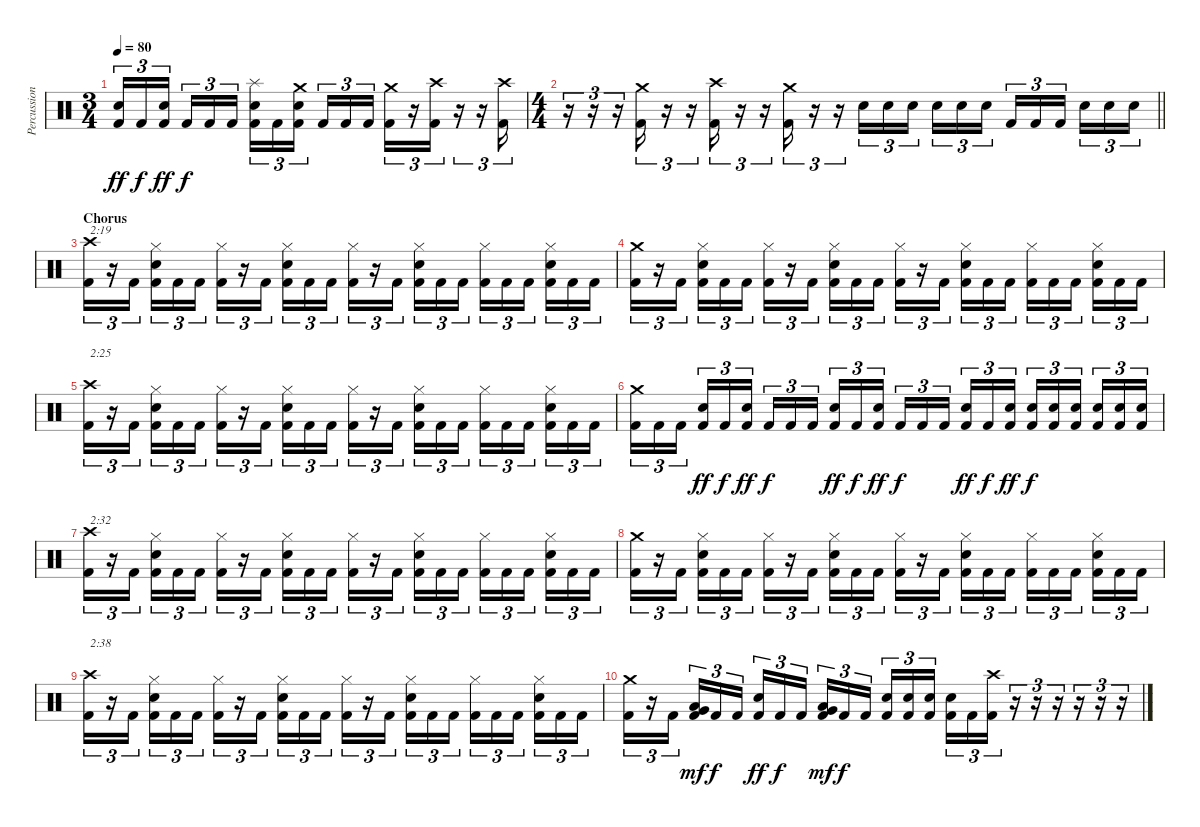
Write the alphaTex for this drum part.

\track ("Percussion" "Percussion") {instrument percussion}
\staff {score}
\articulation defaults
\ts (3 4)
\tempo 80
\clef neutral
\ks c
("Snare (hit) 2" "Kick (hit) 2").16{tu (3 2) dy ff} "Kick (hit) 2".16{tu (3 2) dy f} ("Snare (hit) 2" "Kick (hit) 2").16{tu (3 2) dy ff beam splitsecondary} "Kick (hit) 2".16{tu (3 2) dy f} "Kick (hit) 2".16{tu (3 2)} "Kick (hit) 2".16{tu (3 2)} ("Splash (hit)" "Snare (hit) 2" "Kick (hit) 2").16{tu (3 2)} "Kick (hit) 2".16{tu (3 2)} ("Crash medium (hit)" "Snare (hit) 2" "Kick (hit) 2").16{tu (3 2) beam splitsecondary} "Kick (hit) 2".16{tu (3 2)} "Kick (hit) 2".16{tu (3 2)} "Kick (hit) 2".16{tu (3 2)} ("Crash medium (hit)" "Kick (hit) 2").16{tu (3 2)} r.16{tu (3 2)} ("Crash high (hit)" "Kick (hit) 2").16{tu (3 2)} r.16{tu (3 2)} r.16{tu (3 2)} ("Crash high (hit)" "Kick (hit) 2").16{tu (3 2)} |
\ts (4 4)
\barLineRight lightlight
r.16{tu (3 2)} r.16{tu (3 2)} r.16{tu (3 2)} ("Crash medium (hit)" "Kick (hit) 2").16{tu (3 2)} r.16{tu (3 2)} r.16{tu (3 2)} ("Crash high (hit)" "Kick (hit) 2").16{tu (3 2)} r.16{tu (3 2)} r.16{tu (3 2)} ("Crash medium (hit)" "Kick (hit) 2").16{tu (3 2)} r.16{tu (3 2)} r.16{tu (3 2)} "Snare (hit) 2".16{tu (3 2)} "Snare (hit) 2".16{tu (3 2)} "Snare (hit) 2".16{tu (3 2) beam splitsecondary} "Snare (hit) 2".16{tu (3 2)} "Snare (hit) 2".16{tu (3 2)} "Snare (hit) 2".16{tu (3 2)} "Kick (hit) 2".16{tu (3 2)} "Kick (hit) 2".16{tu (3 2)} "Kick (hit) 2".16{tu (3 2) beam splitsecondary} "Snare (hit) 2".16{tu (3 2)} "Snare (hit) 2".16{tu (3 2)} "Snare (hit) 2".16{tu (3 2)} |
\section ("" "Chorus")
("Crash high (hit)" "Kick (hit) 2").16{tu (3 2) txt "2:19"} r.16{tu (3 2)} "Kick (hit) 2".16{tu (3 2) beam splitsecondary} ("Hi-Hat (closed)" "Snare (hit) 2" "Kick (hit) 2").16{tu (3 2)} "Kick (hit) 2".16{tu (3 2)} "Kick (hit) 2".16{tu (3 2)} ("Hi-Hat (closed)" "Kick (hit) 2").16{tu (3 2)} r.16{tu (3 2)} "Kick (hit) 2".16{tu (3 2) beam splitsecondary} ("Hi-Hat (closed)" "Snare (hit) 2" "Kick (hit) 2").16{tu (3 2)} "Kick (hit) 2".16{tu (3 2)} "Kick (hit) 2".16{tu (3 2)} ("Hi-Hat (closed)" "Kick (hit) 2").16{tu (3 2)} r.16{tu (3 2)} "Kick (hit) 2".16{tu (3 2) beam splitsecondary} ("Hi-Hat (closed)" "Snare (hit) 2" "Kick (hit) 2").16{tu (3 2)} "Kick (hit) 2".16{tu (3 2)} "Kick (hit) 2".16{tu (3 2)} ("Hi-Hat (closed)" "Kick (hit) 2").16{tu (3 2)} "Kick (hit) 2".16{tu (3 2)} "Kick (hit) 2".16{tu (3 2) beam splitsecondary} ("Hi-Hat (closed)" "Snare (hit) 2" "Kick (hit) 2").16{tu (3 2)} "Kick (hit) 2".16{tu (3 2)} "Kick (hit) 2".16{tu (3 2)} |
("Crash medium (hit)" "Kick (hit) 2").16{tu (3 2)} r.16{tu (3 2)} "Kick (hit) 2".16{tu (3 2) beam splitsecondary} ("Hi-Hat (closed)" "Snare (hit) 2" "Kick (hit) 2").16{tu (3 2)} "Kick (hit) 2".16{tu (3 2)} "Kick (hit) 2".16{tu (3 2)} ("Hi-Hat (closed)" "Kick (hit) 2").16{tu (3 2)} r.16{tu (3 2)} "Kick (hit) 2".16{tu (3 2) beam splitsecondary} ("Hi-Hat (closed)" "Snare (hit) 2" "Kick (hit) 2").16{tu (3 2)} "Kick (hit) 2".16{tu (3 2)} "Kick (hit) 2".16{tu (3 2)} ("Hi-Hat (closed)" "Kick (hit) 2").16{tu (3 2)} r.16{tu (3 2)} "Kick (hit) 2".16{tu (3 2) beam splitsecondary} ("Hi-Hat (closed)" "Snare (hit) 2" "Kick (hit) 2").16{tu (3 2)} "Kick (hit) 2".16{tu (3 2)} "Kick (hit) 2".16{tu (3 2)} ("Hi-Hat (closed)" "Kick (hit) 2").16{tu (3 2)} "Kick (hit) 2".16{tu (3 2)} "Kick (hit) 2".16{tu (3 2) beam splitsecondary} ("Hi-Hat (closed)" "Snare (hit) 2" "Kick (hit) 2").16{tu (3 2)} "Kick (hit) 2".16{tu (3 2)} "Kick (hit) 2".16{tu (3 2)} |
("Crash high (hit)" "Kick (hit) 2").16{tu (3 2) txt "2:25"} r.16{tu (3 2)} "Kick (hit) 2".16{tu (3 2) beam splitsecondary} ("Hi-Hat (closed)" "Snare (hit) 2" "Kick (hit) 2").16{tu (3 2)} "Kick (hit) 2".16{tu (3 2)} "Kick (hit) 2".16{tu (3 2)} ("Hi-Hat (closed)" "Kick (hit) 2").16{tu (3 2)} r.16{tu (3 2)} "Kick (hit) 2".16{tu (3 2) beam splitsecondary} ("Hi-Hat (closed)" "Snare (hit) 2" "Kick (hit) 2").16{tu (3 2)} "Kick (hit) 2".16{tu (3 2)} "Kick (hit) 2".16{tu (3 2)} ("Hi-Hat (closed)" "Kick (hit) 2").16{tu (3 2)} r.16{tu (3 2)} "Kick (hit) 2".16{tu (3 2) beam splitsecondary} ("Hi-Hat (closed)" "Snare (hit) 2" "Kick (hit) 2").16{tu (3 2)} "Kick (hit) 2".16{tu (3 2)} "Kick (hit) 2".16{tu (3 2)} ("Hi-Hat (closed)" "Kick (hit) 2").16{tu (3 2)} "Kick (hit) 2".16{tu (3 2)} "Kick (hit) 2".16{tu (3 2) beam splitsecondary} ("Hi-Hat (closed)" "Snare (hit) 2" "Kick (hit) 2").16{tu (3 2)} "Kick (hit) 2".16{tu (3 2)} "Kick (hit) 2".16{tu (3 2)} |
("Crash medium (hit)" "Kick (hit) 2").16{tu (3 2)} "Kick (hit) 2".16{tu (3 2)} "Kick (hit) 2".16{tu (3 2) beam splitsecondary} ("Snare (hit) 2" "Kick (hit) 2").16{tu (3 2) dy ff} "Kick (hit) 2".16{tu (3 2) dy f} ("Snare (hit) 2" "Kick (hit) 2").16{tu (3 2) dy ff} "Kick (hit) 2".16{tu (3 2) dy f} "Kick (hit) 2".16{tu (3 2)} "Kick (hit) 2".16{tu (3 2) beam splitsecondary} ("Snare (hit) 2" "Kick (hit) 2").16{tu (3 2) dy ff} "Kick (hit) 2".16{tu (3 2) dy f} ("Snare (hit) 2" "Kick (hit) 2").16{tu (3 2) dy ff} "Kick (hit) 2".16{tu (3 2) dy f} "Kick (hit) 2".16{tu (3 2)} "Kick (hit) 2".16{tu (3 2) beam splitsecondary} ("Snare (hit) 2" "Kick (hit) 2").16{tu (3 2) dy ff} "Kick (hit) 2".16{tu (3 2) dy f} ("Snare (hit) 2" "Kick (hit) 2").16{tu (3 2) dy ff} ("Snare (hit) 2" "Kick (hit) 2").16{tu (3 2) dy f} ("Snare (hit) 2" "Kick (hit) 2").16{tu (3 2)} ("Snare (hit) 2" "Kick (hit) 2").16{tu (3 2) beam splitsecondary} ("Snare (hit) 2" "Kick (hit) 2").16{tu (3 2)} ("Snare (hit) 2" "Kick (hit) 2").16{tu (3 2)} ("Snare (hit) 2" "Kick (hit) 2").16{tu (3 2)} |
("Crash high (hit)" "Kick (hit) 2").16{tu (3 2) txt "2:32"} r.16{tu (3 2)} "Kick (hit) 2".16{tu (3 2) beam splitsecondary} ("Hi-Hat (closed)" "Snare (hit) 2" "Kick (hit) 2").16{tu (3 2)} "Kick (hit) 2".16{tu (3 2)} "Kick (hit) 2".16{tu (3 2)} ("Hi-Hat (closed)" "Kick (hit) 2").16{tu (3 2)} r.16{tu (3 2)} "Kick (hit) 2".16{tu (3 2) beam splitsecondary} ("Hi-Hat (closed)" "Snare (hit) 2" "Kick (hit) 2").16{tu (3 2)} "Kick (hit) 2".16{tu (3 2)} "Kick (hit) 2".16{tu (3 2)} ("Hi-Hat (closed)" "Kick (hit) 2").16{tu (3 2)} r.16{tu (3 2)} "Kick (hit) 2".16{tu (3 2) beam splitsecondary} ("Hi-Hat (closed)" "Snare (hit) 2" "Kick (hit) 2").16{tu (3 2)} "Kick (hit) 2".16{tu (3 2)} "Kick (hit) 2".16{tu (3 2)} ("Hi-Hat (closed)" "Kick (hit) 2").16{tu (3 2)} "Kick (hit) 2".16{tu (3 2)} "Kick (hit) 2".16{tu (3 2) beam splitsecondary} ("Hi-Hat (closed)" "Snare (hit) 2" "Kick (hit) 2").16{tu (3 2)} "Kick (hit) 2".16{tu (3 2)} "Kick (hit) 2".16{tu (3 2)} |
("Crash medium (hit)" "Kick (hit) 2").16{tu (3 2)} r.16{tu (3 2)} "Kick (hit) 2".16{tu (3 2) beam splitsecondary} ("Hi-Hat (closed)" "Snare (hit) 2" "Kick (hit) 2").16{tu (3 2)} "Kick (hit) 2".16{tu (3 2)} "Kick (hit) 2".16{tu (3 2)} ("Hi-Hat (closed)" "Kick (hit) 2").16{tu (3 2)} r.16{tu (3 2)} "Kick (hit) 2".16{tu (3 2) beam splitsecondary} ("Hi-Hat (closed)" "Snare (hit) 2" "Kick (hit) 2").16{tu (3 2)} "Kick (hit) 2".16{tu (3 2)} "Kick (hit) 2".16{tu (3 2)} ("Hi-Hat (closed)" "Kick (hit) 2").16{tu (3 2)} r.16{tu (3 2)} "Kick (hit) 2".16{tu (3 2) beam splitsecondary} ("Hi-Hat (closed)" "Snare (hit) 2" "Kick (hit) 2").16{tu (3 2)} "Kick (hit) 2".16{tu (3 2)} "Kick (hit) 2".16{tu (3 2)} ("Hi-Hat (closed)" "Kick (hit) 2").16{tu (3 2)} "Kick (hit) 2".16{tu (3 2)} "Kick (hit) 2".16{tu (3 2) beam splitsecondary} ("Hi-Hat (closed)" "Snare (hit) 2" "Kick (hit) 2").16{tu (3 2)} "Kick (hit) 2".16{tu (3 2)} "Kick (hit) 2".16{tu (3 2)} |
("Crash high (hit)" "Kick (hit) 2").16{tu (3 2) txt "2:38"} r.16{tu (3 2)} "Kick (hit) 2".16{tu (3 2) beam splitsecondary} ("Hi-Hat (closed)" "Snare (hit) 2" "Kick (hit) 2").16{tu (3 2)} "Kick (hit) 2".16{tu (3 2)} "Kick (hit) 2".16{tu (3 2)} ("Hi-Hat (closed)" "Kick (hit) 2").16{tu (3 2)} r.16{tu (3 2)} "Kick (hit) 2".16{tu (3 2) beam splitsecondary} ("Hi-Hat (closed)" "Snare (hit) 2" "Kick (hit) 2").16{tu (3 2)} "Kick (hit) 2".16{tu (3 2)} "Kick (hit) 2".16{tu (3 2)} ("Hi-Hat (closed)" "Kick (hit) 2").16{tu (3 2)} r.16{tu (3 2)} "Kick (hit) 2".16{tu (3 2) beam splitsecondary} ("Hi-Hat (closed)" "Snare (hit) 2" "Kick (hit) 2").16{tu (3 2)} "Kick (hit) 2".16{tu (3 2)} "Kick (hit) 2".16{tu (3 2)} ("Hi-Hat (closed)" "Kick (hit) 2").16{tu (3 2)} "Kick (hit) 2".16{tu (3 2)} "Kick (hit) 2".16{tu (3 2) beam splitsecondary} ("Hi-Hat (closed)" "Snare (hit) 2" "Kick (hit) 2").16{tu (3 2)} "Kick (hit) 2".16{tu (3 2)} "Kick (hit) 2".16{tu (3 2)} |
("Crash medium (hit)" "Kick (hit) 2").16{tu (3 2)} r.16{tu (3 2)} "Kick (hit) 2".16{tu (3 2) beam splitsecondary} ("Low Floor Tom (hit)" "Very Low Tom (hit)" "Kick (hit) 2").16{tu (3 2) dy mf} "Kick (hit) 2".16{tu (3 2) dy f} "Kick (hit) 2".16{tu (3 2)} ("Snare (hit) 2" "Kick (hit) 2").16{tu (3 2) dy ff} "Kick (hit) 2".16{tu (3 2) dy f} "Kick (hit) 2".16{tu (3 2) beam splitsecondary} ("Low Floor Tom (hit)" "Very Low Tom (hit)" "Kick (hit) 2").16{tu (3 2) dy mf} "Kick (hit) 2".16{tu (3 2) dy f} "Kick (hit) 2".16{tu (3 2)} ("Snare (hit) 2" "Kick (hit) 2").16{tu (3 2)} ("Snare (hit) 2" "Kick (hit) 2").16{tu (3 2)} ("Snare (hit) 2" "Kick (hit) 2").16{tu (3 2) beam splitsecondary} ("Snare (hit) 2" "Kick (hit) 2").16{tu (3 2)} "Kick (hit) 2".16{tu (3 2)} ("Crash high (hit)" "Kick (hit) 2").16{tu (3 2)} r.16{tu (3 2)} r.16{tu (3 2)} r.16{tu (3 2)} r.16{tu (3 2)} r.16{tu (3 2)} r.16{tu (3 2)}
